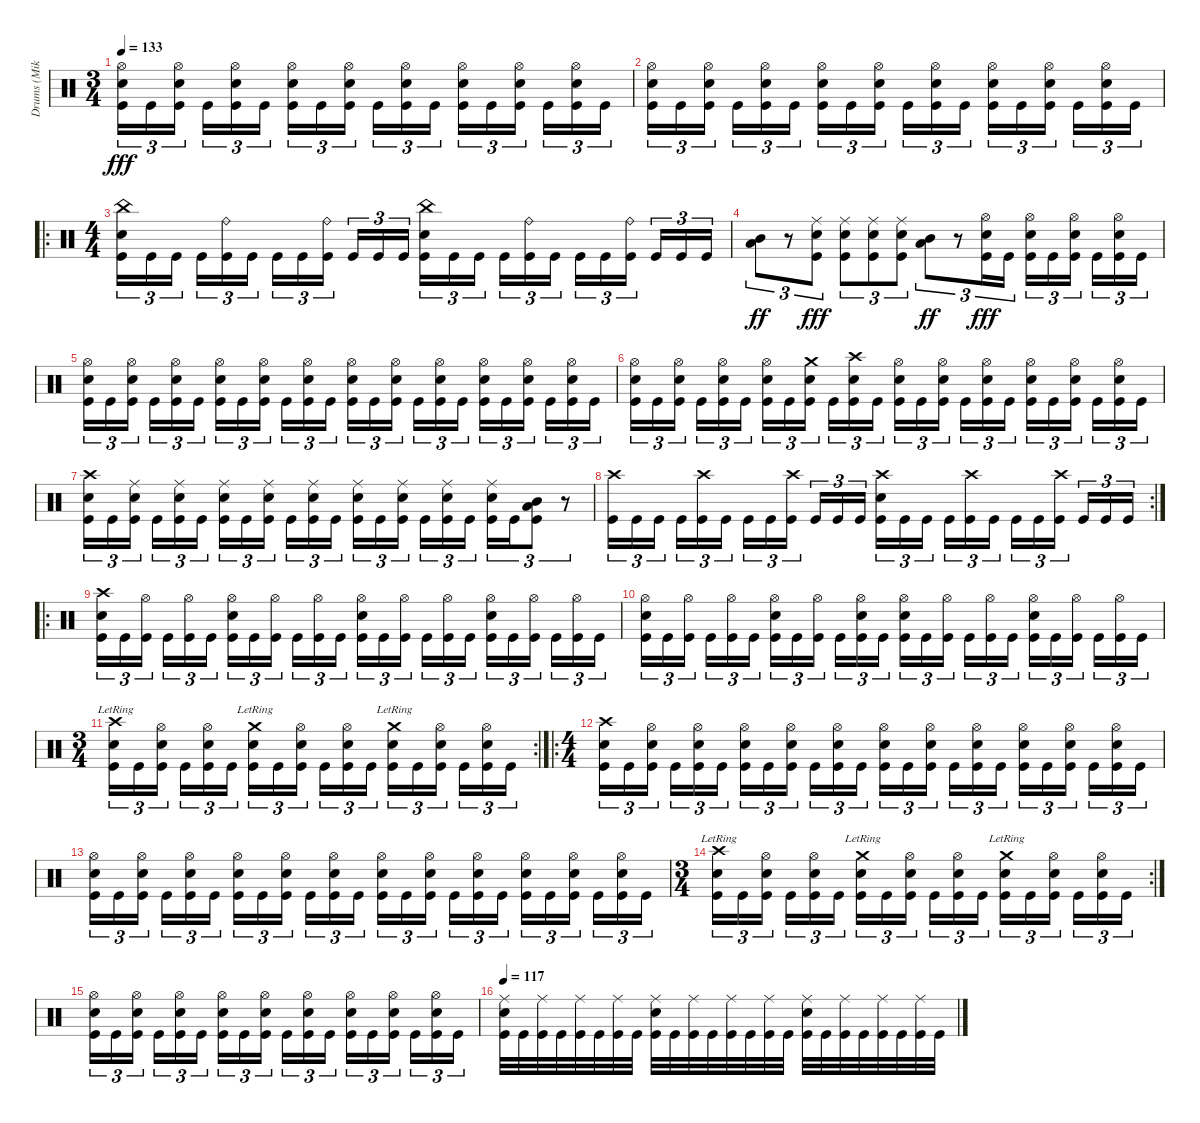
\track ("Drums (Mike)" "Drums (Mik") {instrument percussion}
\staff {score}
\articulation defaults
\ts (3 4)
\tempo 133
\clef neutral
\ks c
("Hi-Hat (open)" "Electric Snare (hit)" "Kick (hit)").16{tu (3 2) dy fff} "Kick (hit)".16{tu (3 2)} ("Hi-Hat (open)" "Electric Snare (hit)" "Kick (hit)").16{tu (3 2)} "Kick (hit)".16{tu (3 2)} ("Hi-Hat (open)" "Electric Snare (hit)" "Kick (hit)").16{tu (3 2)} "Kick (hit)".16{tu (3 2)} ("Hi-Hat (open)" "Electric Snare (hit)" "Kick (hit)").16{tu (3 2)} "Kick (hit)".16{tu (3 2)} ("Hi-Hat (open)" "Electric Snare (hit)" "Kick (hit)").16{tu (3 2)} "Kick (hit)".16{tu (3 2)} ("Hi-Hat (open)" "Electric Snare (hit)" "Kick (hit)").16{tu (3 2)} "Kick (hit)".16{tu (3 2)} ("Hi-Hat (open)" "Electric Snare (hit)" "Kick (hit)").16{tu (3 2)} "Kick (hit)".16{tu (3 2)} ("Hi-Hat (open)" "Electric Snare (hit)" "Kick (hit)").16{tu (3 2)} "Kick (hit)".16{tu (3 2)} ("Hi-Hat (open)" "Electric Snare (hit)" "Kick (hit)").16{tu (3 2)} "Kick (hit)".16{tu (3 2)} |
("Hi-Hat (open)" "Electric Snare (hit)" "Kick (hit)").16{tu (3 2)} "Kick (hit)".16{tu (3 2)} ("Hi-Hat (open)" "Electric Snare (hit)" "Kick (hit)").16{tu (3 2)} "Kick (hit)".16{tu (3 2)} ("Hi-Hat (open)" "Electric Snare (hit)" "Kick (hit)").16{tu (3 2)} "Kick (hit)".16{tu (3 2)} ("Hi-Hat (open)" "Electric Snare (hit)" "Kick (hit)").16{tu (3 2)} "Kick (hit)".16{tu (3 2)} ("Hi-Hat (open)" "Electric Snare (hit)" "Kick (hit)").16{tu (3 2)} "Kick (hit)".16{tu (3 2)} ("Hi-Hat (open)" "Electric Snare (hit)" "Kick (hit)").16{tu (3 2)} "Kick (hit)".16{tu (3 2)} ("Hi-Hat (open)" "Electric Snare (hit)" "Kick (hit)").16{tu (3 2)} "Kick (hit)".16{tu (3 2)} ("Hi-Hat (open)" "Electric Snare (hit)" "Kick (hit)").16{tu (3 2)} "Kick (hit)".16{tu (3 2)} ("Hi-Hat (open)" "Electric Snare (hit)" "Kick (hit)").16{tu (3 2)} "Kick (hit)".16{tu (3 2)} |
\ro
\ts (4 4)
("China (hit)" "Electric Snare (hit)" "Kick (hit)").16{tu (3 2)} "Kick (hit)".16{tu (3 2)} "Kick (hit)".16{tu (3 2)} "Kick (hit)".16{tu (3 2)} ("Ride (bell)" "Kick (hit)").16{tu (3 2)} "Kick (hit)".16{tu (3 2)} "Kick (hit)".16{tu (3 2)} "Kick (hit)".16{tu (3 2)} ("Ride (bell)" "Kick (hit)").16{tu (3 2)} "Kick (hit)".16{tu (3 2)} "Kick (hit)".16{tu (3 2)} "Kick (hit)".16{tu (3 2)} ("China (hit)" "Electric Snare (hit)" "Kick (hit)").16{tu (3 2)} "Kick (hit)".16{tu (3 2)} "Kick (hit)".16{tu (3 2)} "Kick (hit)".16{tu (3 2)} ("Ride (bell)" "Kick (hit)").16{tu (3 2)} "Kick (hit)".16{tu (3 2)} "Kick (hit)".16{tu (3 2)} "Kick (hit)".16{tu (3 2)} ("Ride (bell)" "Kick (hit)").16{tu (3 2)} "Kick (hit)".16{tu (3 2)} "Kick (hit)".16{tu (3 2)} "Kick (hit)".16{tu (3 2)} |
("Low Tom (hit)" "Mid Tom (hit)").8{tu (3 2) dy ff} r.8{tu (3 2)} ("Ride (middle)" "Electric Snare (hit)" "Kick (hit)").8{tu (3 2) dy fff} ("Ride (middle)" "Electric Snare (hit)" "Kick (hit)").8{tu (3 2)} ("Ride (middle)" "Electric Snare (hit)" "Kick (hit)").8{tu (3 2)} ("Ride (middle)" "Electric Snare (hit)" "Kick (hit)").8{tu (3 2)} ("Low Tom (hit)" "Mid Tom (hit)").8{tu (3 2) dy ff} r.8{tu (3 2)} ("Hi-Hat (open)" "Electric Snare (hit)" "Kick (hit)").16{tu (3 2) dy fff} "Kick (hit)".16{tu (3 2)} ("Hi-Hat (open)" "Electric Snare (hit)" "Kick (hit)").16{tu (3 2)} "Kick (hit)".16{tu (3 2)} ("Hi-Hat (open)" "Electric Snare (hit)" "Kick (hit)").16{tu (3 2)} "Kick (hit)".16{tu (3 2)} ("Hi-Hat (open)" "Electric Snare (hit)" "Kick (hit)").16{tu (3 2)} "Kick (hit)".16{tu (3 2)} |
("Hi-Hat (open)" "Electric Snare (hit)" "Kick (hit)").16{tu (3 2)} "Kick (hit)".16{tu (3 2)} ("Hi-Hat (open)" "Electric Snare (hit)" "Kick (hit)").16{tu (3 2)} "Kick (hit)".16{tu (3 2)} ("Hi-Hat (open)" "Electric Snare (hit)" "Kick (hit)").16{tu (3 2)} "Kick (hit)".16{tu (3 2)} ("Hi-Hat (open)" "Electric Snare (hit)" "Kick (hit)").16{tu (3 2)} "Kick (hit)".16{tu (3 2)} ("Hi-Hat (open)" "Electric Snare (hit)" "Kick (hit)").16{tu (3 2)} "Kick (hit)".16{tu (3 2)} ("Hi-Hat (open)" "Electric Snare (hit)" "Kick (hit)").16{tu (3 2)} "Kick (hit)".16{tu (3 2)} ("Hi-Hat (open)" "Electric Snare (hit)" "Kick (hit)").16{tu (3 2)} "Kick (hit)".16{tu (3 2)} ("Hi-Hat (open)" "Electric Snare (hit)" "Kick (hit)").16{tu (3 2)} "Kick (hit)".16{tu (3 2)} ("Hi-Hat (open)" "Electric Snare (hit)" "Kick (hit)").16{tu (3 2)} "Kick (hit)".16{tu (3 2)} ("Hi-Hat (open)" "Electric Snare (hit)" "Kick (hit)").16{tu (3 2)} "Kick (hit)".16{tu (3 2)} ("Hi-Hat (open)" "Electric Snare (hit)" "Kick (hit)").16{tu (3 2)} "Kick (hit)".16{tu (3 2)} ("Hi-Hat (open)" "Electric Snare (hit)" "Kick (hit)").16{tu (3 2)} "Kick (hit)".16{tu (3 2)} |
("Hi-Hat (open)" "Electric Snare (hit)" "Kick (hit)").16{tu (3 2)} "Kick (hit)".16{tu (3 2)} ("Hi-Hat (open)" "Electric Snare (hit)" "Kick (hit)").16{tu (3 2)} "Kick (hit)".16{tu (3 2)} ("Hi-Hat (open)" "Electric Snare (hit)" "Kick (hit)").16{tu (3 2)} "Kick (hit)".16{tu (3 2)} ("Hi-Hat (open)" "Electric Snare (hit)" "Kick (hit)").16{tu (3 2)} "Kick (hit)".16{tu (3 2)} ("Crash medium (hit)" "Electric Snare (hit)" "Kick (hit)").16{tu (3 2)} "Kick (hit)".16{tu (3 2)} ("Crash high (hit)" "Electric Snare (hit)" "Kick (hit)").16{tu (3 2)} "Kick (hit)".16{tu (3 2)} ("Hi-Hat (open)" "Electric Snare (hit)" "Kick (hit)").16{tu (3 2)} "Kick (hit)".16{tu (3 2)} ("Hi-Hat (open)" "Electric Snare (hit)" "Kick (hit)").16{tu (3 2)} "Kick (hit)".16{tu (3 2)} ("Hi-Hat (open)" "Electric Snare (hit)" "Kick (hit)").16{tu (3 2)} "Kick (hit)".16{tu (3 2)} ("Hi-Hat (open)" "Electric Snare (hit)" "Kick (hit)").16{tu (3 2)} "Kick (hit)".16{tu (3 2)} ("Hi-Hat (open)" "Electric Snare (hit)" "Kick (hit)").16{tu (3 2)} "Kick (hit)".16{tu (3 2)} ("Hi-Hat (open)" "Electric Snare (hit)" "Kick (hit)").16{tu (3 2)} "Kick (hit)".16{tu (3 2)} |
("Crash high (hit)" "Electric Snare (hit)" "Kick (hit)").16{tu (3 2)} "Kick (hit)".16{tu (3 2)} ("Ride (middle)" "Electric Snare (hit)" "Kick (hit)").16{tu (3 2)} "Kick (hit)".16{tu (3 2)} ("Ride (middle)" "Electric Snare (hit)" "Kick (hit)").16{tu (3 2)} "Kick (hit)".16{tu (3 2)} ("Ride (middle)" "Electric Snare (hit)" "Kick (hit)").16{tu (3 2)} "Kick (hit)".16{tu (3 2)} ("Ride (middle)" "Electric Snare (hit)" "Kick (hit)").16{tu (3 2)} "Kick (hit)".16{tu (3 2)} ("Ride (middle)" "Electric Snare (hit)" "Kick (hit)").16{tu (3 2)} "Kick (hit)".16{tu (3 2)} ("Ride (middle)" "Electric Snare (hit)" "Kick (hit)").16{tu (3 2)} "Kick (hit)".16{tu (3 2)} ("Ride (middle)" "Electric Snare (hit)" "Kick (hit)").16{tu (3 2)} "Kick (hit)".16{tu (3 2)} ("Ride (middle)" "Electric Snare (hit)" "Kick (hit)").16{tu (3 2)} "Kick (hit)".16{tu (3 2)} ("Ride (middle)" "Electric Snare (hit)" "Kick (hit)").16{tu (3 2)} "Kick (hit)".16{tu (3 2)} ("Low Tom (hit)" "Mid Tom (hit)" "Kick (hit)").8{tu (3 2)} r.8{tu (3 2)} |
\rc 2
("Crash high (hit)" "Kick (hit)").16{tu (3 2)} "Kick (hit)".16{tu (3 2)} "Kick (hit)".16{tu (3 2)} "Kick (hit)".16{tu (3 2)} ("Crash high (hit)" "Kick (hit)").16{tu (3 2)} "Kick (hit)".16{tu (3 2)} "Kick (hit)".16{tu (3 2)} "Kick (hit)".16{tu (3 2)} ("Crash high (hit)" "Kick (hit)").16{tu (3 2)} "Kick (hit)".16{tu (3 2)} "Kick (hit)".16{tu (3 2)} "Kick (hit)".16{tu (3 2)} ("Crash high (hit)" "Electric Snare (hit)" "Kick (hit)").16{tu (3 2)} "Kick (hit)".16{tu (3 2)} "Kick (hit)".16{tu (3 2)} "Kick (hit)".16{tu (3 2)} ("Crash high (hit)" "Kick (hit)").16{tu (3 2)} "Kick (hit)".16{tu (3 2)} "Kick (hit)".16{tu (3 2)} "Kick (hit)".16{tu (3 2)} ("Crash high (hit)" "Kick (hit)").16{tu (3 2)} "Kick (hit)".16{tu (3 2)} "Kick (hit)".16{tu (3 2)} "Kick (hit)".16{tu (3 2)} |
\ro
("Crash high (hit)" "Electric Snare (hit)" "Kick (hit)").16{tu (3 2)} "Kick (hit)".16{tu (3 2)} ("Hi-Hat (open)" "Kick (hit)").16{tu (3 2)} "Kick (hit)".16{tu (3 2)} ("Hi-Hat (open)" "Kick (hit)").16{tu (3 2)} "Kick (hit)".16{tu (3 2)} ("Hi-Hat (open)" "Electric Snare (hit)" "Kick (hit)").16{tu (3 2)} "Kick (hit)".16{tu (3 2)} ("Hi-Hat (open)" "Kick (hit)").16{tu (3 2)} "Kick (hit)".16{tu (3 2)} ("Hi-Hat (open)" "Kick (hit)").16{tu (3 2)} "Kick (hit)".16{tu (3 2)} ("Hi-Hat (open)" "Electric Snare (hit)" "Kick (hit)").16{tu (3 2)} "Kick (hit)".16{tu (3 2)} ("Hi-Hat (open)" "Kick (hit)").16{tu (3 2)} "Kick (hit)".16{tu (3 2)} ("Hi-Hat (open)" "Kick (hit)").16{tu (3 2)} "Kick (hit)".16{tu (3 2)} ("Hi-Hat (open)" "Electric Snare (hit)" "Kick (hit)").16{tu (3 2)} "Kick (hit)".16{tu (3 2)} ("Hi-Hat (open)" "Kick (hit)").16{tu (3 2)} "Kick (hit)".16{tu (3 2)} ("Hi-Hat (open)" "Kick (hit)").16{tu (3 2)} "Kick (hit)".16{tu (3 2)} |
("Hi-Hat (open)" "Electric Snare (hit)" "Kick (hit)").16{tu (3 2)} "Kick (hit)".16{tu (3 2)} ("Hi-Hat (open)" "Kick (hit)").16{tu (3 2)} "Kick (hit)".16{tu (3 2)} ("Hi-Hat (open)" "Kick (hit)").16{tu (3 2)} "Kick (hit)".16{tu (3 2)} ("Hi-Hat (open)" "Electric Snare (hit)" "Kick (hit)").16{tu (3 2)} "Kick (hit)".16{tu (3 2)} ("Hi-Hat (open)" "Kick (hit)").16{tu (3 2)} "Kick (hit)".16{tu (3 2)} ("Hi-Hat (open)" "Electric Snare (hit)" "Kick (hit)").16{tu (3 2)} "Kick (hit)".16{tu (3 2)} ("Hi-Hat (open)" "Electric Snare (hit)" "Kick (hit)").16{tu (3 2)} "Kick (hit)".16{tu (3 2)} ("Hi-Hat (open)" "Kick (hit)").16{tu (3 2)} "Kick (hit)".16{tu (3 2)} ("Hi-Hat (open)" "Kick (hit)").16{tu (3 2)} "Kick (hit)".16{tu (3 2)} ("Hi-Hat (open)" "Electric Snare (hit)" "Kick (hit)").16{tu (3 2)} "Kick (hit)".16{tu (3 2)} ("Hi-Hat (open)" "Kick (hit)").16{tu (3 2)} "Kick (hit)".16{tu (3 2)} ("Hi-Hat (open)" "Kick (hit)").16{tu (3 2)} "Kick (hit)".16{tu (3 2)} |
\rc 2
\ts (3 4)
("Crash high (hit)"{lr} "Electric Snare (hit)" "Kick (hit)").16{tu (3 2)} "Kick (hit)".16{tu (3 2)} ("Hi-Hat (open)" "Electric Snare (hit)" "Kick (hit)").16{tu (3 2)} "Kick (hit)".16{tu (3 2)} ("Hi-Hat (open)" "Electric Snare (hit)" "Kick (hit)").16{tu (3 2)} "Kick (hit)".16{tu (3 2)} ("Crash medium (hit)"{lr} "Electric Snare (hit)" "Kick (hit)").16{tu (3 2)} "Kick (hit)".16{tu (3 2)} ("Hi-Hat (open)" "Electric Snare (hit)" "Kick (hit)").16{tu (3 2)} "Kick (hit)".16{tu (3 2)} ("Hi-Hat (open)" "Electric Snare (hit)" "Kick (hit)").16{tu (3 2)} "Kick (hit)".16{tu (3 2)} ("Crash medium (hit)"{lr} "Electric Snare (hit)" "Kick (hit)").16{tu (3 2)} "Kick (hit)".16{tu (3 2)} ("Hi-Hat (open)" "Electric Snare (hit)" "Kick (hit)").16{tu (3 2)} "Kick (hit)".16{tu (3 2)} ("Hi-Hat (open)" "Electric Snare (hit)" "Kick (hit)").16{tu (3 2)} "Kick (hit)".16{tu (3 2)} |
\ro
\ts (4 4)
("Crash high (hit)" "Electric Snare (hit)" "Kick (hit)").16{tu (3 2)} "Kick (hit)".16{tu (3 2)} ("Hi-Hat (open)" "Electric Snare (hit)" "Kick (hit)").16{tu (3 2)} "Kick (hit)".16{tu (3 2)} ("Hi-Hat (open)" "Electric Snare (hit)" "Kick (hit)").16{tu (3 2)} "Kick (hit)".16{tu (3 2)} ("Hi-Hat (open)" "Electric Snare (hit)" "Kick (hit)").16{tu (3 2)} "Kick (hit)".16{tu (3 2)} ("Hi-Hat (open)" "Electric Snare (hit)" "Kick (hit)").16{tu (3 2)} "Kick (hit)".16{tu (3 2)} ("Hi-Hat (open)" "Electric Snare (hit)" "Kick (hit)").16{tu (3 2)} "Kick (hit)".16{tu (3 2)} ("Hi-Hat (open)" "Electric Snare (hit)" "Kick (hit)").16{tu (3 2)} "Kick (hit)".16{tu (3 2)} ("Hi-Hat (open)" "Electric Snare (hit)" "Kick (hit)").16{tu (3 2)} "Kick (hit)".16{tu (3 2)} ("Hi-Hat (open)" "Electric Snare (hit)" "Kick (hit)").16{tu (3 2)} "Kick (hit)".16{tu (3 2)} ("Hi-Hat (open)" "Electric Snare (hit)" "Kick (hit)").16{tu (3 2)} "Kick (hit)".16{tu (3 2)} ("Hi-Hat (open)" "Electric Snare (hit)" "Kick (hit)").16{tu (3 2)} "Kick (hit)".16{tu (3 2)} ("Hi-Hat (open)" "Electric Snare (hit)" "Kick (hit)").16{tu (3 2)} "Kick (hit)".16{tu (3 2)} |
("Hi-Hat (open)" "Electric Snare (hit)" "Kick (hit)").16{tu (3 2)} "Kick (hit)".16{tu (3 2)} ("Hi-Hat (open)" "Electric Snare (hit)" "Kick (hit)").16{tu (3 2)} "Kick (hit)".16{tu (3 2)} ("Hi-Hat (open)" "Electric Snare (hit)" "Kick (hit)").16{tu (3 2)} "Kick (hit)".16{tu (3 2)} ("Hi-Hat (open)" "Electric Snare (hit)" "Kick (hit)").16{tu (3 2)} "Kick (hit)".16{tu (3 2)} ("Hi-Hat (open)" "Electric Snare (hit)" "Kick (hit)").16{tu (3 2)} "Kick (hit)".16{tu (3 2)} ("Hi-Hat (open)" "Electric Snare (hit)" "Kick (hit)").16{tu (3 2)} "Kick (hit)".16{tu (3 2)} ("Hi-Hat (open)" "Electric Snare (hit)" "Kick (hit)").16{tu (3 2)} "Kick (hit)".16{tu (3 2)} ("Hi-Hat (open)" "Electric Snare (hit)" "Kick (hit)").16{tu (3 2)} "Kick (hit)".16{tu (3 2)} ("Hi-Hat (open)" "Electric Snare (hit)" "Kick (hit)").16{tu (3 2)} "Kick (hit)".16{tu (3 2)} ("Hi-Hat (open)" "Electric Snare (hit)" "Kick (hit)").16{tu (3 2)} "Kick (hit)".16{tu (3 2)} ("Hi-Hat (open)" "Electric Snare (hit)" "Kick (hit)").16{tu (3 2)} "Kick (hit)".16{tu (3 2)} ("Hi-Hat (open)" "Electric Snare (hit)" "Kick (hit)").16{tu (3 2)} "Kick (hit)".16{tu (3 2)} |
\rc 2
\ts (3 4)
("Crash high (hit)"{lr} "Electric Snare (hit)" "Kick (hit)").16{tu (3 2)} "Kick (hit)".16{tu (3 2)} ("Hi-Hat (open)" "Electric Snare (hit)" "Kick (hit)").16{tu (3 2)} "Kick (hit)".16{tu (3 2)} ("Hi-Hat (open)" "Electric Snare (hit)" "Kick (hit)").16{tu (3 2)} "Kick (hit)".16{tu (3 2)} ("Crash medium (hit)"{lr} "Electric Snare (hit)" "Kick (hit)").16{tu (3 2)} "Kick (hit)".16{tu (3 2)} ("Hi-Hat (open)" "Electric Snare (hit)" "Kick (hit)").16{tu (3 2)} "Kick (hit)".16{tu (3 2)} ("Hi-Hat (open)" "Electric Snare (hit)" "Kick (hit)").16{tu (3 2)} "Kick (hit)".16{tu (3 2)} ("Crash medium (hit)"{lr} "Electric Snare (hit)" "Kick (hit)").16{tu (3 2)} "Kick (hit)".16{tu (3 2)} ("Hi-Hat (open)" "Electric Snare (hit)" "Kick (hit)").16{tu (3 2)} "Kick (hit)".16{tu (3 2)} ("Hi-Hat (open)" "Electric Snare (hit)" "Kick (hit)").16{tu (3 2)} "Kick (hit)".16{tu (3 2)} |
("Hi-Hat (open)" "Electric Snare (hit)" "Kick (hit)").16{tu (3 2)} "Kick (hit)".16{tu (3 2)} ("Hi-Hat (open)" "Electric Snare (hit)" "Kick (hit)").16{tu (3 2)} "Kick (hit)".16{tu (3 2)} ("Hi-Hat (open)" "Electric Snare (hit)" "Kick (hit)").16{tu (3 2)} "Kick (hit)".16{tu (3 2)} ("Hi-Hat (open)" "Electric Snare (hit)" "Kick (hit)").16{tu (3 2)} "Kick (hit)".16{tu (3 2)} ("Hi-Hat (open)" "Electric Snare (hit)" "Kick (hit)").16{tu (3 2)} "Kick (hit)".16{tu (3 2)} ("Hi-Hat (open)" "Electric Snare (hit)" "Kick (hit)").16{tu (3 2)} "Kick (hit)".16{tu (3 2)} ("Hi-Hat (open)" "Electric Snare (hit)" "Kick (hit)").16{tu (3 2)} "Kick (hit)".16{tu (3 2)} ("Hi-Hat (open)" "Electric Snare (hit)" "Kick (hit)").16{tu (3 2)} "Kick (hit)".16{tu (3 2)} ("Hi-Hat (open)" "Electric Snare (hit)" "Kick (hit)").16{tu (3 2)} "Kick (hit)".16{tu (3 2)} |
\tempo 117
("Ride (middle)" "Electric Snare (hit)" "Kick (hit)").32 "Kick (hit)".32 ("Ride (middle)" "Kick (hit)").32 "Kick (hit)".32 ("Ride (middle)" "Kick (hit)").32 "Kick (hit)".32 ("Ride (middle)" "Kick (hit)").32 "Kick (hit)".32 ("Ride (middle)" "Electric Snare (hit)" "Kick (hit)").32 "Kick (hit)".32 ("Ride (middle)" "Kick (hit)").32 "Kick (hit)".32 ("Ride (middle)" "Kick (hit)").32 "Kick (hit)".32 ("Ride (middle)" "Kick (hit)").32 "Kick (hit)".32 ("Ride (middle)" "Electric Snare (hit)" "Kick (hit)").32 "Kick (hit)".32 ("Ride (middle)" "Kick (hit)").32 "Kick (hit)".32 ("Ride (middle)" "Kick (hit)").32 "Kick (hit)".32 ("Ride (middle)" "Kick (hit)").32 "Kick (hit)".32
